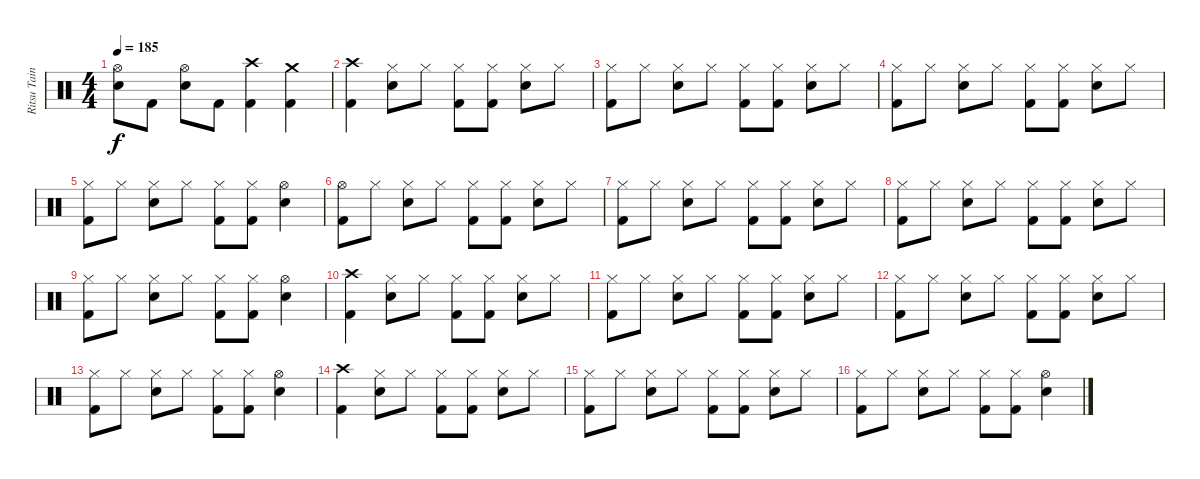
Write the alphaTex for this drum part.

\track ("Ritsu Tainaka" "Ritsu Tain") {instrument percussion}
\staff {score}
\articulation defaults
\ts (4 4)
\tempo 185
\clef neutral
\ks c
("Hi-Hat (open)" "Snare (hit) 2").8{dy f} "Kick (hit) 2".8 ("Hi-Hat (open)" "Snare (hit) 2").8 "Kick (hit) 2".8 ("Crash high (hit)" "Kick (hit) 2").4 ("Crash medium (hit)" "Kick (hit) 2").4 |
("Crash high (hit)" "Kick (hit) 2").4 ("Hi-Hat (closed)" "Snare (hit) 2").8 "Hi-Hat (closed)".8 ("Hi-Hat (closed)" "Kick (hit) 2").8 ("Hi-Hat (closed)" "Kick (hit) 2").8 ("Hi-Hat (closed)" "Snare (hit) 2").8 "Hi-Hat (closed)".8 |
("Hi-Hat (closed)" "Kick (hit) 2").8 "Hi-Hat (closed)".8 ("Hi-Hat (closed)" "Snare (hit) 2").8 "Hi-Hat (closed)".8 ("Hi-Hat (closed)" "Kick (hit) 2").8 ("Hi-Hat (closed)" "Kick (hit) 2").8 ("Hi-Hat (closed)" "Snare (hit) 2").8 "Hi-Hat (closed)".8 |
("Hi-Hat (closed)" "Kick (hit) 2").8 "Hi-Hat (closed)".8 ("Hi-Hat (closed)" "Snare (hit) 2").8 "Hi-Hat (closed)".8 ("Hi-Hat (closed)" "Kick (hit) 2").8 ("Hi-Hat (closed)" "Kick (hit) 2").8 ("Hi-Hat (closed)" "Snare (hit) 2").8 "Hi-Hat (closed)".8 |
("Hi-Hat (closed)" "Kick (hit) 2").8 "Hi-Hat (closed)".8 ("Hi-Hat (closed)" "Snare (hit) 2").8 "Hi-Hat (closed)".8 ("Hi-Hat (closed)" "Kick (hit) 2").8 ("Hi-Hat (closed)" "Kick (hit) 2").8 ("Hi-Hat (open)" "Snare (hit) 2").4 |
("Hi-Hat (open)" "Kick (hit) 2").8 "Hi-Hat (closed)".8 ("Hi-Hat (closed)" "Snare (hit) 2").8 "Hi-Hat (closed)".8 ("Hi-Hat (closed)" "Kick (hit) 2").8 ("Hi-Hat (closed)" "Kick (hit) 2").8 ("Hi-Hat (closed)" "Snare (hit) 2").8 "Hi-Hat (closed)".8 |
("Hi-Hat (closed)" "Kick (hit) 2").8 "Hi-Hat (closed)".8 ("Hi-Hat (closed)" "Snare (hit) 2").8 "Hi-Hat (closed)".8 ("Hi-Hat (closed)" "Kick (hit) 2").8 ("Hi-Hat (closed)" "Kick (hit) 2").8 ("Hi-Hat (closed)" "Snare (hit) 2").8 "Hi-Hat (closed)".8 |
("Hi-Hat (closed)" "Kick (hit) 2").8 "Hi-Hat (closed)".8 ("Hi-Hat (closed)" "Snare (hit) 2").8 "Hi-Hat (closed)".8 ("Hi-Hat (closed)" "Kick (hit) 2").8 ("Hi-Hat (closed)" "Kick (hit) 2").8 ("Hi-Hat (closed)" "Snare (hit) 2").8 "Hi-Hat (closed)".8 |
("Hi-Hat (closed)" "Kick (hit) 2").8 "Hi-Hat (closed)".8 ("Hi-Hat (closed)" "Snare (hit) 2").8 "Hi-Hat (closed)".8 ("Hi-Hat (closed)" "Kick (hit) 2").8 ("Hi-Hat (closed)" "Kick (hit) 2").8 ("Hi-Hat (open)" "Snare (hit) 2").4 |
("Crash high (hit)" "Kick (hit) 2").4 ("Hi-Hat (closed)" "Snare (hit) 2").8 "Hi-Hat (closed)".8 ("Hi-Hat (closed)" "Kick (hit) 2").8 ("Hi-Hat (closed)" "Kick (hit) 2").8 ("Hi-Hat (closed)" "Snare (hit) 2").8 "Hi-Hat (closed)".8 |
("Hi-Hat (closed)" "Kick (hit) 2").8 "Hi-Hat (closed)".8 ("Hi-Hat (closed)" "Snare (hit) 2").8 "Hi-Hat (closed)".8 ("Hi-Hat (closed)" "Kick (hit) 2").8 ("Hi-Hat (closed)" "Kick (hit) 2").8 ("Hi-Hat (closed)" "Snare (hit) 2").8 "Hi-Hat (closed)".8 |
("Hi-Hat (closed)" "Kick (hit) 2").8 "Hi-Hat (closed)".8 ("Hi-Hat (closed)" "Snare (hit) 2").8 "Hi-Hat (closed)".8 ("Hi-Hat (closed)" "Kick (hit) 2").8 ("Hi-Hat (closed)" "Kick (hit) 2").8 ("Hi-Hat (closed)" "Snare (hit) 2").8 "Hi-Hat (closed)".8 |
("Hi-Hat (closed)" "Kick (hit) 2").8 "Hi-Hat (closed)".8 ("Hi-Hat (closed)" "Snare (hit) 2").8 "Hi-Hat (closed)".8 ("Hi-Hat (closed)" "Kick (hit) 2").8 ("Hi-Hat (closed)" "Kick (hit) 2").8 ("Hi-Hat (open)" "Snare (hit) 2").4 |
("Crash high (hit)" "Kick (hit) 2").4 ("Hi-Hat (closed)" "Snare (hit) 2").8 "Hi-Hat (closed)".8 ("Hi-Hat (closed)" "Kick (hit) 2").8 ("Hi-Hat (closed)" "Kick (hit) 2").8 ("Hi-Hat (closed)" "Snare (hit) 2").8 "Hi-Hat (closed)".8 |
("Hi-Hat (closed)" "Kick (hit) 2").8 "Hi-Hat (closed)".8 ("Hi-Hat (closed)" "Snare (hit) 2").8 "Hi-Hat (closed)".8 ("Hi-Hat (closed)" "Kick (hit) 2").8 ("Hi-Hat (closed)" "Kick (hit) 2").8 ("Hi-Hat (closed)" "Snare (hit) 2").8 "Hi-Hat (closed)".8 |
("Hi-Hat (closed)" "Kick (hit) 2").8 "Hi-Hat (closed)".8 ("Hi-Hat (closed)" "Snare (hit) 2").8 "Hi-Hat (closed)".8 ("Hi-Hat (closed)" "Kick (hit) 2").8 ("Hi-Hat (closed)" "Kick (hit) 2").8 ("Hi-Hat (open)" "Snare (hit) 2").4
